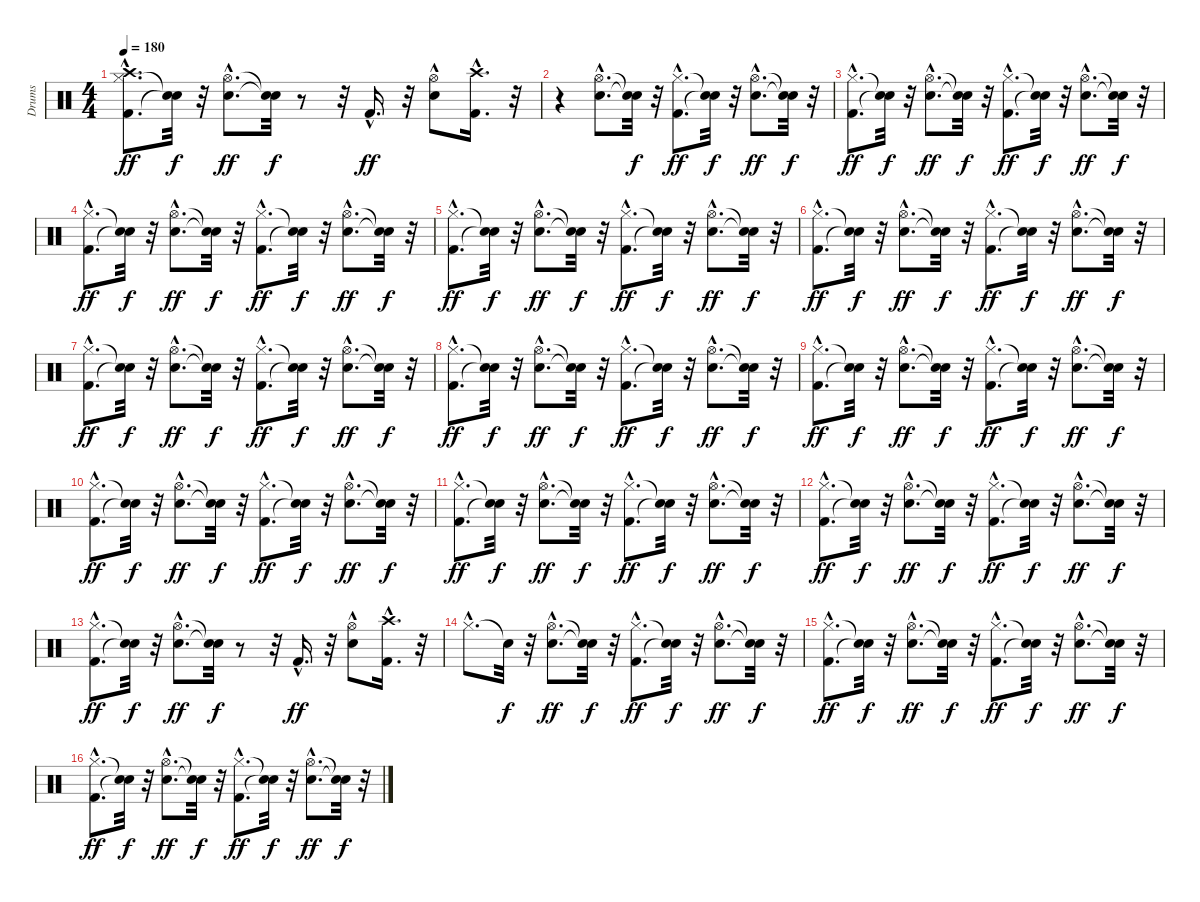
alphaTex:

\track ("Drums" "Drums") {instrument percussion}
\staff {score}
\articulation defaults
\ts (4 4)
\tempo 180
\clef neutral
\ks c
("Kick (hit) 2"{hac} "Hi-Hat (closed)"{hac} "Crash high (hit)"{hac}).8{d dy ff} ("Snare (hit)"{t} "Snare (hit)"{t}).32{dy f} r.32 ("Snare (hit) 2"{hac} "Hi-Hat (open)"{hac}).8{d dy ff} ("Snare (hit)"{t} "Snare (hit)"{t}).32{dy f} r.8 r.32 "Kick (hit) 2"{hac}.16{d dy ff} r.32 ("Snare (hit) 2"{hac} "Hi-Hat (open)"{hac}).8 ("Kick (hit) 2"{hac} "Crash high (hit)"{hac}).16{d} r.32 |
r.4 ("Snare (hit) 2"{hac} "Hi-Hat (open)"{hac}).8{d} ("Snare (hit)"{t} "Snare (hit)"{t}).32{dy f} r.32 ("Kick (hit) 2"{hac} "Hi-Hat (closed)"{hac}).8{d dy ff} ("Snare (hit)"{t} "Snare (hit)"{t}).32{dy f} r.32 ("Snare (hit) 2"{hac} "Hi-Hat (open)"{hac}).8{d dy ff} ("Snare (hit)"{t} "Snare (hit)"{t}).32{dy f} r.32 |
("Kick (hit) 2"{hac} "Hi-Hat (closed)"{hac}).8{d dy ff} ("Snare (hit)"{t} "Snare (hit)"{t}).32{dy f} r.32 ("Snare (hit) 2"{hac} "Hi-Hat (open)"{hac}).8{d dy ff} ("Snare (hit)"{t} "Snare (hit)"{t}).32{dy f} r.32 ("Kick (hit) 2"{hac} "Hi-Hat (closed)"{hac}).8{d dy ff} ("Snare (hit)"{t} "Snare (hit)"{t}).32{dy f} r.32 ("Snare (hit) 2"{hac} "Hi-Hat (open)"{hac}).8{d dy ff} ("Snare (hit)"{t} "Snare (hit)"{t}).32{dy f} r.32 |
("Kick (hit) 2"{hac} "Hi-Hat (closed)"{hac}).8{d dy ff} ("Snare (hit)"{t} "Snare (hit)"{t}).32{dy f} r.32 ("Snare (hit) 2"{hac} "Hi-Hat (open)"{hac}).8{d dy ff} ("Snare (hit)"{t} "Snare (hit)"{t}).32{dy f} r.32 ("Kick (hit) 2"{hac} "Hi-Hat (closed)"{hac}).8{d dy ff} ("Snare (hit)"{t} "Snare (hit)"{t}).32{dy f} r.32 ("Snare (hit) 2"{hac} "Hi-Hat (open)"{hac}).8{d dy ff} ("Snare (hit)"{t} "Snare (hit)"{t}).32{dy f} r.32 |
("Kick (hit) 2"{hac} "Hi-Hat (closed)"{hac}).8{d dy ff} ("Snare (hit)"{t} "Snare (hit)"{t}).32{dy f} r.32 ("Snare (hit) 2"{hac} "Hi-Hat (open)"{hac}).8{d dy ff} ("Snare (hit)"{t} "Snare (hit)"{t}).32{dy f} r.32 ("Kick (hit) 2"{hac} "Hi-Hat (closed)"{hac}).8{d dy ff} ("Snare (hit)"{t} "Snare (hit)"{t}).32{dy f} r.32 ("Snare (hit) 2"{hac} "Hi-Hat (open)"{hac}).8{d dy ff} ("Snare (hit)"{t} "Snare (hit)"{t}).32{dy f} r.32 |
("Kick (hit) 2"{hac} "Hi-Hat (closed)"{hac}).8{d dy ff} ("Snare (hit)"{t} "Snare (hit)"{t}).32{dy f} r.32 ("Snare (hit) 2"{hac} "Hi-Hat (open)"{hac}).8{d dy ff} ("Snare (hit)"{t} "Snare (hit)"{t}).32{dy f} r.32 ("Kick (hit) 2"{hac} "Hi-Hat (closed)"{hac}).8{d dy ff} ("Snare (hit)"{t} "Snare (hit)"{t}).32{dy f} r.32 ("Snare (hit) 2"{hac} "Hi-Hat (open)"{hac}).8{d dy ff} ("Snare (hit)"{t} "Snare (hit)"{t}).32{dy f} r.32 |
("Kick (hit) 2"{hac} "Hi-Hat (closed)"{hac}).8{d dy ff} ("Snare (hit)"{t} "Snare (hit)"{t}).32{dy f} r.32 ("Snare (hit) 2"{hac} "Hi-Hat (open)"{hac}).8{d dy ff} ("Snare (hit)"{t} "Snare (hit)"{t}).32{dy f} r.32 ("Kick (hit) 2"{hac} "Hi-Hat (closed)"{hac}).8{d dy ff} ("Snare (hit)"{t} "Snare (hit)"{t}).32{dy f} r.32 ("Snare (hit) 2"{hac} "Hi-Hat (open)"{hac}).8{d dy ff} ("Snare (hit)"{t} "Snare (hit)"{t}).32{dy f} r.32 |
("Kick (hit) 2"{hac} "Hi-Hat (closed)"{hac}).8{d dy ff} ("Snare (hit)"{t} "Snare (hit)"{t}).32{dy f} r.32 ("Snare (hit) 2"{hac} "Hi-Hat (open)"{hac}).8{d dy ff} ("Snare (hit)"{t} "Snare (hit)"{t}).32{dy f} r.32 ("Kick (hit) 2"{hac} "Hi-Hat (closed)"{hac}).8{d dy ff} ("Snare (hit)"{t} "Snare (hit)"{t}).32{dy f} r.32 ("Snare (hit) 2"{hac} "Hi-Hat (open)"{hac}).8{d dy ff} ("Snare (hit)"{t} "Snare (hit)"{t}).32{dy f} r.32 |
("Kick (hit) 2"{hac} "Hi-Hat (closed)"{hac}).8{d dy ff} ("Snare (hit)"{t} "Snare (hit)"{t}).32{dy f} r.32 ("Snare (hit) 2"{hac} "Hi-Hat (open)"{hac}).8{d dy ff} ("Snare (hit)"{t} "Snare (hit)"{t}).32{dy f} r.32 ("Kick (hit) 2"{hac} "Hi-Hat (closed)"{hac}).8{d dy ff} ("Snare (hit)"{t} "Snare (hit)"{t}).32{dy f} r.32 ("Snare (hit) 2"{hac} "Hi-Hat (open)"{hac}).8{d dy ff} ("Snare (hit)"{t} "Snare (hit)"{t}).32{dy f} r.32 |
("Kick (hit) 2"{hac} "Hi-Hat (closed)"{hac}).8{d dy ff} ("Snare (hit)"{t} "Snare (hit)"{t}).32{dy f} r.32 ("Snare (hit) 2"{hac} "Hi-Hat (open)"{hac}).8{d dy ff} ("Snare (hit)"{t} "Snare (hit)"{t}).32{dy f} r.32 ("Kick (hit) 2"{hac} "Hi-Hat (closed)"{hac}).8{d dy ff} ("Snare (hit)"{t} "Snare (hit)"{t}).32{dy f} r.32 ("Snare (hit) 2"{hac} "Hi-Hat (open)"{hac}).8{d dy ff} ("Snare (hit)"{t} "Snare (hit)"{t}).32{dy f} r.32 |
("Kick (hit) 2"{hac} "Hi-Hat (closed)"{hac}).8{d dy ff} ("Snare (hit)"{t} "Snare (hit)"{t}).32{dy f} r.32 ("Snare (hit) 2"{hac} "Hi-Hat (open)"{hac}).8{d dy ff} ("Snare (hit)"{t} "Snare (hit)"{t}).32{dy f} r.32 ("Kick (hit) 2"{hac} "Hi-Hat (closed)"{hac}).8{d dy ff} ("Snare (hit)"{t} "Snare (hit)"{t}).32{dy f} r.32 ("Snare (hit) 2"{hac} "Hi-Hat (open)"{hac}).8{d dy ff} ("Snare (hit)"{t} "Snare (hit)"{t}).32{dy f} r.32 |
("Kick (hit) 2"{hac} "Hi-Hat (closed)"{hac}).8{d dy ff} ("Snare (hit)"{t} "Snare (hit)"{t}).32{dy f} r.32 ("Snare (hit) 2"{hac} "Hi-Hat (open)"{hac}).8{d dy ff} ("Snare (hit)"{t} "Snare (hit)"{t}).32{dy f} r.32 ("Kick (hit) 2"{hac} "Hi-Hat (closed)"{hac}).8{d dy ff} ("Snare (hit)"{t} "Snare (hit)"{t}).32{dy f} r.32 ("Snare (hit) 2"{hac} "Hi-Hat (open)"{hac}).8{d dy ff} ("Snare (hit)"{t} "Snare (hit)"{t}).32{dy f} r.32 |
("Kick (hit) 2"{hac} "Hi-Hat (closed)"{hac}).8{d dy ff} ("Snare (hit)"{t} "Snare (hit)"{t}).32{dy f} r.32 ("Snare (hit) 2"{hac} "Hi-Hat (open)"{hac}).8{d dy ff} ("Snare (hit)"{t} "Snare (hit)"{t}).32{dy f} r.8 r.32 "Kick (hit) 2"{hac}.16{d dy ff} r.32 ("Snare (hit) 2"{hac} "Hi-Hat (open)"{hac}).8 ("Kick (hit) 2"{hac} "Crash high (hit)"{hac}).16{d} r.32 |
"Hi-Hat (closed)"{hac}.8{d} "Snare (hit)"{t}.32{dy f} r.32 ("Snare (hit) 2"{hac} "Hi-Hat (open)"{hac}).8{d dy ff} ("Snare (hit)"{t} "Snare (hit)"{t}).32{dy f} r.32 ("Kick (hit) 2"{hac} "Hi-Hat (closed)"{hac}).8{d dy ff} ("Snare (hit)"{t} "Snare (hit)"{t}).32{dy f} r.32 ("Snare (hit) 2"{hac} "Hi-Hat (open)"{hac}).8{d dy ff} ("Snare (hit)"{t} "Snare (hit)"{t}).32{dy f} r.32 |
("Kick (hit) 2"{hac} "Hi-Hat (closed)"{hac}).8{d dy ff} ("Snare (hit)"{t} "Snare (hit)"{t}).32{dy f} r.32 ("Snare (hit) 2"{hac} "Hi-Hat (open)"{hac}).8{d dy ff} ("Snare (hit)"{t} "Snare (hit)"{t}).32{dy f} r.32 ("Kick (hit) 2"{hac} "Hi-Hat (closed)"{hac}).8{d dy ff} ("Snare (hit)"{t} "Snare (hit)"{t}).32{dy f} r.32 ("Snare (hit) 2"{hac} "Hi-Hat (open)"{hac}).8{d dy ff} ("Snare (hit)"{t} "Snare (hit)"{t}).32{dy f} r.32 |
("Kick (hit) 2"{hac} "Hi-Hat (closed)"{hac}).8{d dy ff} ("Snare (hit)"{t} "Snare (hit)"{t}).32{dy f} r.32 ("Snare (hit) 2"{hac} "Hi-Hat (open)"{hac}).8{d dy ff} ("Snare (hit)"{t} "Snare (hit)"{t}).32{dy f} r.32 ("Kick (hit) 2"{hac} "Hi-Hat (closed)"{hac}).8{d dy ff} ("Snare (hit)"{t} "Snare (hit)"{t}).32{dy f} r.32 ("Snare (hit) 2"{hac} "Hi-Hat (open)"{hac}).8{d dy ff} ("Snare (hit)"{t} "Snare (hit)"{t}).32{dy f} r.32
